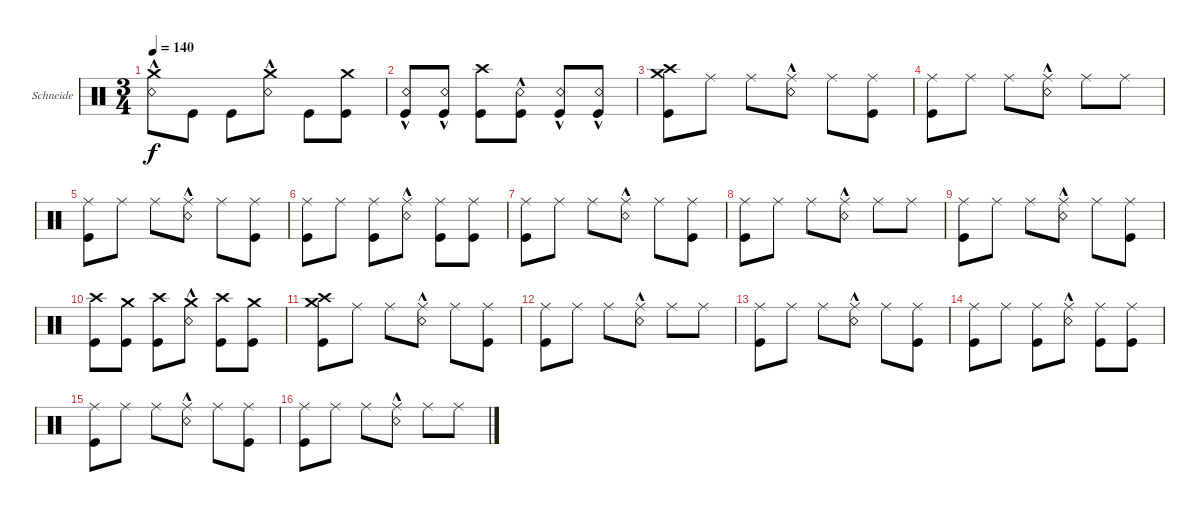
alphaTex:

\bracketExtendMode groupsimilarinstruments
\firstSystemTrackNameOrientation horizontal
\otherSystemsTrackNameOrientation horizontal
\track ("Christoph \"Doom\" Schneider" "Schneide") {instrument percussion}
\staff {score}
\articulation defaults
\ts (3 4)
\tempo 140
\clef neutral
\ks c
("Crash medium (hit)" "Snare (rim shot)"{hac}).8{dy f} "Kick (hit)".8 "Kick (hit)".8 ("Crash medium (hit)" "Snare (rim shot)"{hac}).8 "Kick (hit)".8 ("Crash medium (hit)" "Kick (hit)").8 |
("Kick (hit)" "Snare (rim shot)"{hac}).8 ("Kick (hit)" "Snare (rim shot)"{hac}).8 ("Crash high (hit)" "Kick (hit)").8 ("Kick (hit)" "Snare (rim shot)"{hac}).8 ("Kick (hit)" "Snare (rim shot)"{hac}).8 ("Kick (hit)" "Snare (rim shot)"{hac}).8 |
("Crash medium (hit)" "Kick (hit)" "Crash high (hit)").8 "Ride (middle)".8 "Ride (middle)".8 ("Ride (middle)" "Snare (rim shot)"{hac}).8 "Ride (middle)".8 ("Ride (middle)" "Kick (hit)").8 |
("Kick (hit)" "Ride (middle)").8 "Ride (middle)".8 "Ride (middle)".8 ("Ride (middle)" "Snare (rim shot)"{hac}).8 "Ride (middle)".8 "Ride (middle)".8 |
("Kick (hit)" "Ride (middle)").8 "Ride (middle)".8 "Ride (middle)".8 ("Ride (middle)" "Snare (rim shot)"{hac}).8 "Ride (middle)".8 ("Ride (middle)" "Kick (hit)").8 |
("Kick (hit)" "Ride (middle)").8 "Ride (middle)".8 ("Ride (middle)" "Kick (hit)").8 ("Ride (middle)" "Snare (rim shot)"{hac}).8 ("Ride (middle)" "Kick (hit)").8 ("Ride (middle)" "Kick (hit)").8 |
("Kick (hit)" "Ride (middle)").8 "Ride (middle)".8 "Ride (middle)".8 ("Ride (middle)" "Snare (rim shot)"{hac}).8 "Ride (middle)".8 ("Ride (middle)" "Kick (hit)").8 |
("Kick (hit)" "Ride (middle)").8 "Ride (middle)".8 "Ride (middle)".8 ("Ride (middle)" "Snare (rim shot)"{hac}).8 "Ride (middle)".8 "Ride (middle)".8 |
("Ride (middle)" "Kick (hit)").8 "Ride (middle)".8 "Ride (middle)".8 ("Ride (middle)" "Snare (rim shot)"{hac}).8 "Ride (middle)".8 ("Ride (middle)" "Kick (hit)").8 |
("Crash high (hit)" "Kick (hit)").8 ("Crash medium (hit)" "Kick (hit)").8 ("Crash high (hit)" "Kick (hit)").8 ("Crash medium (hit)" "Snare (rim shot)"{hac}).8 ("Crash high (hit)" "Kick (hit)").8 ("Crash medium (hit)" "Kick (hit)").8 |
("Crash medium (hit)" "Kick (hit)" "Crash high (hit)").8 "Ride (middle)".8 "Ride (middle)".8 ("Ride (middle)" "Snare (rim shot)"{hac}).8 "Ride (middle)".8 ("Ride (middle)" "Kick (hit)").8 |
("Kick (hit)" "Ride (middle)").8 "Ride (middle)".8 "Ride (middle)".8 ("Ride (middle)" "Snare (rim shot)"{hac}).8 "Ride (middle)".8 "Ride (middle)".8 |
("Kick (hit)" "Ride (middle)").8 "Ride (middle)".8 "Ride (middle)".8 ("Ride (middle)" "Snare (rim shot)"{hac}).8 "Ride (middle)".8 ("Ride (middle)" "Kick (hit)").8 |
("Kick (hit)" "Ride (middle)").8 "Ride (middle)".8 ("Ride (middle)" "Kick (hit)").8 ("Ride (middle)" "Snare (rim shot)"{hac}).8 ("Ride (middle)" "Kick (hit)").8 ("Ride (middle)" "Kick (hit)").8 |
("Kick (hit)" "Ride (middle)").8 "Ride (middle)".8 "Ride (middle)".8 ("Ride (middle)" "Snare (rim shot)"{hac}).8 "Ride (middle)".8 ("Ride (middle)" "Kick (hit)").8 |
("Kick (hit)" "Ride (middle)").8 "Ride (middle)".8 "Ride (middle)".8 ("Ride (middle)" "Snare (rim shot)"{hac}).8 "Ride (middle)".8 "Ride (middle)".8
